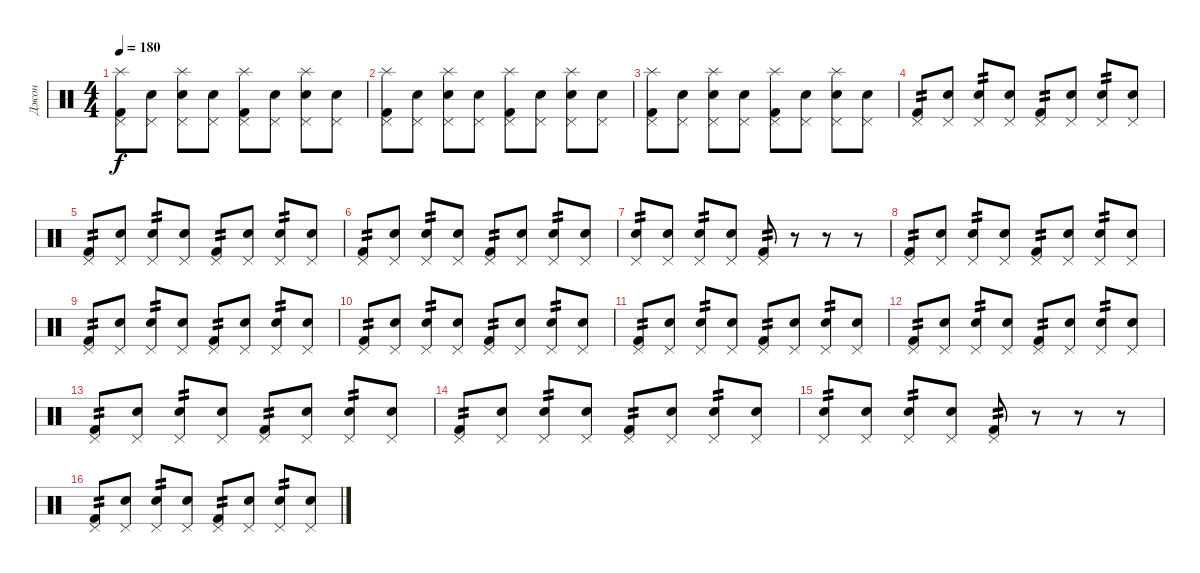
\track ("Джон" "Джон") {instrument percussion}
\staff {score}
\articulation defaults
\ts (4 4)
\tempo 180
\clef neutral
\ks c
("Splash (hit)" "Pedal Hi-Hat (hit)" "Kick (hit) 2").8{dy f} ("Pedal Hi-Hat (hit)" "Snare (hit)").8 ("Splash (hit)" "Pedal Hi-Hat (hit)" "Electric Snare (hit)").8 ("Pedal Hi-Hat (hit)" "Snare (hit)").8 ("Splash (hit)" "Pedal Hi-Hat (hit)" "Kick (hit) 2").8 ("Pedal Hi-Hat (hit)" "Snare (hit)").8 ("Splash (hit)" "Pedal Hi-Hat (hit)" "Electric Snare (hit)").8 ("Pedal Hi-Hat (hit)" "Snare (hit)").8 |
("Splash (hit)" "Pedal Hi-Hat (hit)" "Kick (hit) 2").8 ("Pedal Hi-Hat (hit)" "Snare (hit)").8 ("Splash (hit)" "Pedal Hi-Hat (hit)" "Electric Snare (hit)").8 ("Pedal Hi-Hat (hit)" "Snare (hit)").8 ("Splash (hit)" "Pedal Hi-Hat (hit)" "Kick (hit) 2").8 ("Pedal Hi-Hat (hit)" "Snare (hit)").8 ("Splash (hit)" "Pedal Hi-Hat (hit)" "Electric Snare (hit)").8 ("Pedal Hi-Hat (hit)" "Snare (hit)").8 |
("Splash (hit)" "Pedal Hi-Hat (hit)" "Kick (hit) 2").8 ("Pedal Hi-Hat (hit)" "Snare (hit)").8 ("Splash (hit)" "Pedal Hi-Hat (hit)" "Electric Snare (hit)").8 ("Pedal Hi-Hat (hit)" "Snare (hit)").8 ("Splash (hit)" "Pedal Hi-Hat (hit)" "Kick (hit) 2").8 ("Pedal Hi-Hat (hit)" "Snare (hit)").8 ("Splash (hit)" "Pedal Hi-Hat (hit)" "Electric Snare (hit)").8 ("Pedal Hi-Hat (hit)" "Snare (hit)").8 |
("Pedal Hi-Hat (hit)" "Kick (hit) 2").8{tp 2} ("Pedal Hi-Hat (hit)" "Snare (hit)").8 ("Pedal Hi-Hat (hit)" "Electric Snare (hit)").8{tp 2} ("Pedal Hi-Hat (hit)" "Snare (hit)").8 ("Pedal Hi-Hat (hit)" "Kick (hit) 2").8{tp 2} ("Pedal Hi-Hat (hit)" "Snare (hit)").8 ("Pedal Hi-Hat (hit)" "Electric Snare (hit)").8{tp 2} ("Pedal Hi-Hat (hit)" "Snare (hit)").8 |
("Pedal Hi-Hat (hit)" "Kick (hit) 2").8{tp 2} ("Pedal Hi-Hat (hit)" "Snare (hit)").8 ("Pedal Hi-Hat (hit)" "Electric Snare (hit)").8{tp 2} ("Pedal Hi-Hat (hit)" "Snare (hit)").8 ("Pedal Hi-Hat (hit)" "Kick (hit) 2").8{tp 2} ("Pedal Hi-Hat (hit)" "Snare (hit)").8 ("Pedal Hi-Hat (hit)" "Electric Snare (hit)").8{tp 2} ("Pedal Hi-Hat (hit)" "Snare (hit)").8 |
("Pedal Hi-Hat (hit)" "Kick (hit) 2").8{tp 2} ("Pedal Hi-Hat (hit)" "Snare (hit)").8 ("Pedal Hi-Hat (hit)" "Electric Snare (hit)").8{tp 2} ("Pedal Hi-Hat (hit)" "Snare (hit)").8 ("Pedal Hi-Hat (hit)" "Kick (hit) 2").8{tp 2} ("Pedal Hi-Hat (hit)" "Snare (hit)").8 ("Pedal Hi-Hat (hit)" "Electric Snare (hit)").8{tp 2} ("Pedal Hi-Hat (hit)" "Snare (hit)").8 |
("Pedal Hi-Hat (hit)" "Electric Snare (hit)").8{tp 2} ("Pedal Hi-Hat (hit)" "Electric Snare (hit)").8 ("Pedal Hi-Hat (hit)" "Electric Snare (hit)").8{tp 2} ("Pedal Hi-Hat (hit)" "Electric Snare (hit)").8 ("Pedal Hi-Hat (hit)" "Kick (hit) 2").8{tp 2} r.8 r.8 r.8 |
("Pedal Hi-Hat (hit)" "Kick (hit) 2").8{tp 2} ("Pedal Hi-Hat (hit)" "Snare (hit)").8 ("Pedal Hi-Hat (hit)" "Electric Snare (hit)").8{tp 2} ("Pedal Hi-Hat (hit)" "Snare (hit)").8 ("Pedal Hi-Hat (hit)" "Kick (hit) 2").8{tp 2} ("Pedal Hi-Hat (hit)" "Snare (hit)").8 ("Pedal Hi-Hat (hit)" "Electric Snare (hit)").8{tp 2} ("Pedal Hi-Hat (hit)" "Snare (hit)").8 |
("Pedal Hi-Hat (hit)" "Kick (hit) 2").8{tp 2} ("Pedal Hi-Hat (hit)" "Snare (hit)").8 ("Pedal Hi-Hat (hit)" "Electric Snare (hit)").8{tp 2} ("Pedal Hi-Hat (hit)" "Snare (hit)").8 ("Pedal Hi-Hat (hit)" "Kick (hit) 2").8{tp 2} ("Pedal Hi-Hat (hit)" "Snare (hit)").8 ("Pedal Hi-Hat (hit)" "Electric Snare (hit)").8{tp 2} ("Pedal Hi-Hat (hit)" "Snare (hit)").8 |
("Pedal Hi-Hat (hit)" "Kick (hit) 2").8{tp 2} ("Pedal Hi-Hat (hit)" "Snare (hit)").8 ("Pedal Hi-Hat (hit)" "Electric Snare (hit)").8{tp 2} ("Pedal Hi-Hat (hit)" "Snare (hit)").8 ("Pedal Hi-Hat (hit)" "Kick (hit) 2").8{tp 2} ("Pedal Hi-Hat (hit)" "Snare (hit)").8 ("Pedal Hi-Hat (hit)" "Electric Snare (hit)").8{tp 2} ("Pedal Hi-Hat (hit)" "Snare (hit)").8 |
("Pedal Hi-Hat (hit)" "Kick (hit) 2").8{tp 2} ("Pedal Hi-Hat (hit)" "Snare (hit)").8 ("Pedal Hi-Hat (hit)" "Electric Snare (hit)").8{tp 2} ("Pedal Hi-Hat (hit)" "Snare (hit)").8 ("Pedal Hi-Hat (hit)" "Kick (hit) 2").8{tp 2} ("Pedal Hi-Hat (hit)" "Snare (hit)").8 ("Pedal Hi-Hat (hit)" "Electric Snare (hit)").8{tp 2} ("Pedal Hi-Hat (hit)" "Electric Snare (hit)").8 |
("Pedal Hi-Hat (hit)" "Kick (hit) 2").8{tp 2} ("Pedal Hi-Hat (hit)" "Snare (hit)").8 ("Pedal Hi-Hat (hit)" "Electric Snare (hit)").8{tp 2} ("Pedal Hi-Hat (hit)" "Snare (hit)").8 ("Pedal Hi-Hat (hit)" "Kick (hit) 2").8{tp 2} ("Pedal Hi-Hat (hit)" "Snare (hit)").8 ("Pedal Hi-Hat (hit)" "Electric Snare (hit)").8{tp 2} ("Pedal Hi-Hat (hit)" "Snare (hit)").8 |
("Pedal Hi-Hat (hit)" "Kick (hit) 2").8{tp 2} ("Pedal Hi-Hat (hit)" "Snare (hit)").8 ("Pedal Hi-Hat (hit)" "Electric Snare (hit)").8{tp 2} ("Pedal Hi-Hat (hit)" "Snare (hit)").8 ("Pedal Hi-Hat (hit)" "Kick (hit) 2").8{tp 2} ("Pedal Hi-Hat (hit)" "Snare (hit)").8 ("Pedal Hi-Hat (hit)" "Electric Snare (hit)").8{tp 2} ("Pedal Hi-Hat (hit)" "Snare (hit)").8 |
("Pedal Hi-Hat (hit)" "Kick (hit) 2").8{tp 2} ("Pedal Hi-Hat (hit)" "Snare (hit)").8 ("Pedal Hi-Hat (hit)" "Electric Snare (hit)").8{tp 2} ("Pedal Hi-Hat (hit)" "Snare (hit)").8 ("Pedal Hi-Hat (hit)" "Kick (hit) 2").8{tp 2} ("Pedal Hi-Hat (hit)" "Snare (hit)").8 ("Pedal Hi-Hat (hit)" "Electric Snare (hit)").8{tp 2} ("Pedal Hi-Hat (hit)" "Snare (hit)").8 |
("Pedal Hi-Hat (hit)" "Electric Snare (hit)").8{tp 2} ("Pedal Hi-Hat (hit)" "Electric Snare (hit)").8 ("Pedal Hi-Hat (hit)" "Electric Snare (hit)").8{tp 2} ("Pedal Hi-Hat (hit)" "Electric Snare (hit)").8 ("Pedal Hi-Hat (hit)" "Kick (hit) 2").8{tp 2} r.8 r.8 r.8 |
("Pedal Hi-Hat (hit)" "Kick (hit) 2").8{tp 2} ("Pedal Hi-Hat (hit)" "Snare (hit)").8 ("Pedal Hi-Hat (hit)" "Electric Snare (hit)").8{tp 2} ("Pedal Hi-Hat (hit)" "Snare (hit)").8 ("Pedal Hi-Hat (hit)" "Kick (hit) 2").8{tp 2} ("Pedal Hi-Hat (hit)" "Snare (hit)").8 ("Pedal Hi-Hat (hit)" "Electric Snare (hit)").8{tp 2} ("Pedal Hi-Hat (hit)" "Snare (hit)").8
